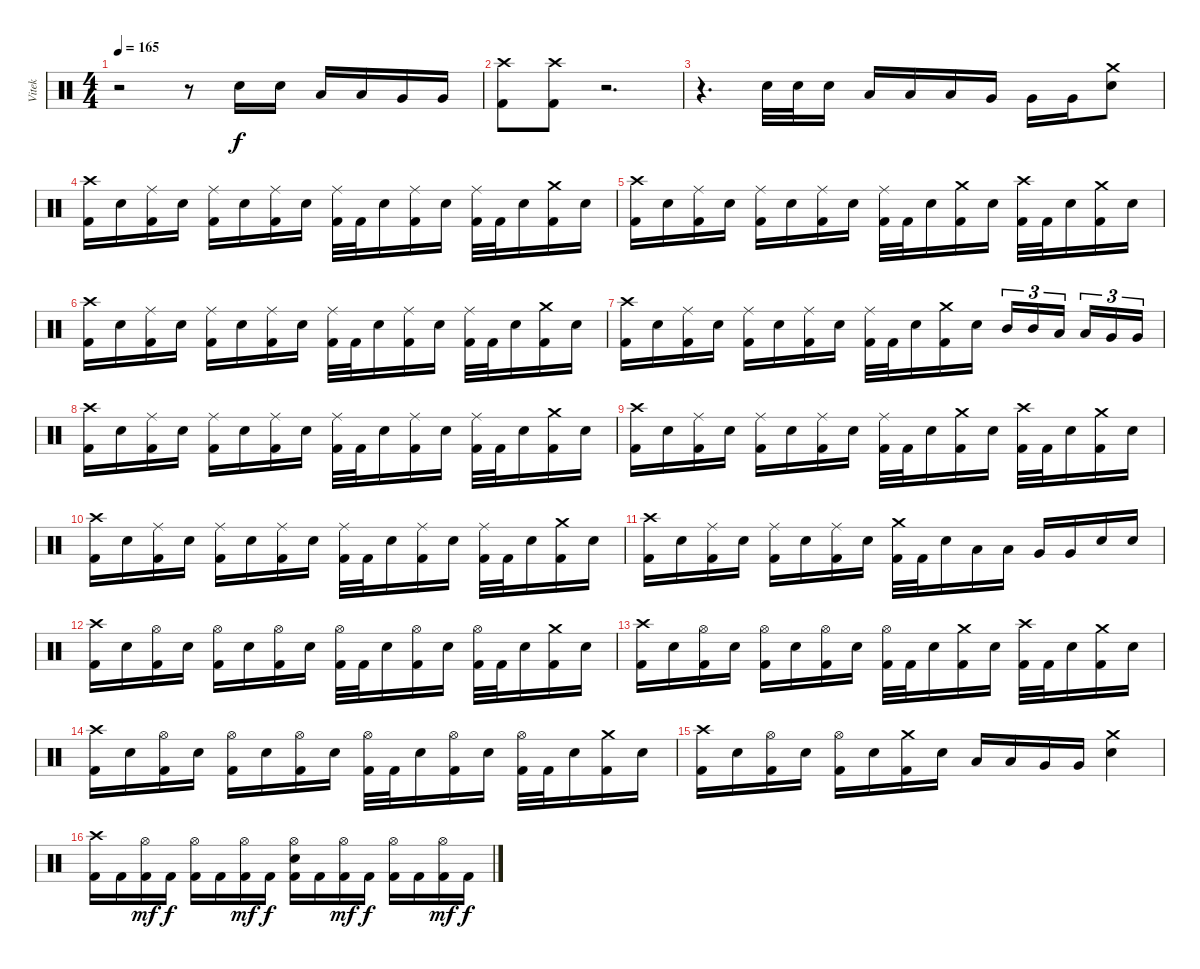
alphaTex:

\track ("Vitek" "Vitek") {instrument percussion}
\staff {score}
\articulation defaults
\ts (4 4)
\tempo 165
\clef neutral
\ks c
r.2{dy f} r.8 "Electric Snare (hit)".16 "Electric Snare (hit)".16 "Low Tom (hit)".16 "Low Tom (hit)".16 "Very Low Tom (hit)".16 "Very Low Tom (hit)".16 |
("Crash high (hit)" "Kick (hit) 2").8 ("Crash high (hit)" "Kick (hit) 2").8 r.2{d} |
r.4{d} "Electric Snare (hit)".32 "Electric Snare (hit)".32 "Electric Snare (hit)".16 "Low Tom (hit)".16 "Low Tom (hit)".16 "Low Tom (hit)".16 "Very Low Tom (hit)".16 "Very Low Tom (hit)".16 "Very Low Tom (hit)".16 ("Crash medium (hit)" "Electric Snare (hit)").8 |
("Crash high (hit)" "Kick (hit) 2").16 "Electric Snare (hit)".16 ("Ride (middle)" "Kick (hit) 2").16 "Electric Snare (hit)".16 ("Ride (middle)" "Kick (hit) 2").16 "Electric Snare (hit)".16 ("Ride (middle)" "Kick (hit) 2").16 "Electric Snare (hit)".16 ("Ride (middle)" "Kick (hit) 2").32 "Kick (hit) 2".32 "Electric Snare (hit)".16 ("Ride (middle)" "Kick (hit) 2").16 "Electric Snare (hit)".16 ("Ride (middle)" "Kick (hit) 2").32 "Kick (hit) 2".32 "Electric Snare (hit)".16 ("Crash medium (hit)" "Kick (hit) 2").16 "Electric Snare (hit)".16 |
("Crash high (hit)" "Kick (hit) 2").16 "Electric Snare (hit)".16 ("Ride (middle)" "Kick (hit) 2").16 "Electric Snare (hit)".16 ("Ride (middle)" "Kick (hit) 2").16 "Electric Snare (hit)".16 ("Ride (middle)" "Kick (hit) 2").16 "Electric Snare (hit)".16 ("Ride (middle)" "Kick (hit) 2").32 "Kick (hit) 2".32 "Electric Snare (hit)".16 ("Crash medium (hit)" "Kick (hit) 2").16 "Electric Snare (hit)".16 ("Crash high (hit)" "Kick (hit) 2").32 "Kick (hit) 2".32 "Electric Snare (hit)".16 ("Crash medium (hit)" "Kick (hit) 2").16 "Electric Snare (hit)".16 |
("Crash high (hit)" "Kick (hit) 2").16 "Electric Snare (hit)".16 ("Ride (middle)" "Kick (hit) 2").16 "Electric Snare (hit)".16 ("Ride (middle)" "Kick (hit) 2").16 "Electric Snare (hit)".16 ("Ride (middle)" "Kick (hit) 2").16 "Electric Snare (hit)".16 ("Ride (middle)" "Kick (hit) 2").32 "Kick (hit) 2".32 "Electric Snare (hit)".16 ("Ride (middle)" "Kick (hit) 2").16 "Electric Snare (hit)".16 ("Ride (middle)" "Kick (hit) 2").32 "Kick (hit) 2".32 "Electric Snare (hit)".16 ("Crash medium (hit)" "Kick (hit) 2").16 "Electric Snare (hit)".16 |
("Crash high (hit)" "Kick (hit) 2").16 "Electric Snare (hit)".16 ("Ride (middle)" "Kick (hit) 2").16 "Electric Snare (hit)".16 ("Ride (middle)" "Kick (hit) 2").16 "Electric Snare (hit)".16 ("Ride (middle)" "Kick (hit) 2").16 "Electric Snare (hit)".16 ("Ride (middle)" "Kick (hit) 2").32 "Kick (hit) 2".32 "Electric Snare (hit)".16 ("Crash medium (hit)" "Kick (hit) 2").16 "Electric Snare (hit)".16 "Mid Tom (hit)".16{tu (3 2)} "Mid Tom (hit)".16{tu (3 2)} "Low Tom (hit)".16{tu (3 2) beam splitsecondary} "Low Tom (hit)".16{tu (3 2)} "Very Low Tom (hit)".16{tu (3 2)} "Very Low Tom (hit)".16{tu (3 2)} |
("Crash high (hit)" "Kick (hit) 2").16 "Electric Snare (hit)".16 ("Ride (middle)" "Kick (hit) 2").16 "Electric Snare (hit)".16 ("Ride (middle)" "Kick (hit) 2").16 "Electric Snare (hit)".16 ("Ride (middle)" "Kick (hit) 2").16 "Electric Snare (hit)".16 ("Ride (middle)" "Kick (hit) 2").32 "Kick (hit) 2".32 "Electric Snare (hit)".16 ("Ride (middle)" "Kick (hit) 2").16 "Electric Snare (hit)".16 ("Ride (middle)" "Kick (hit) 2").32 "Kick (hit) 2".32 "Electric Snare (hit)".16 ("Crash medium (hit)" "Kick (hit) 2").16 "Electric Snare (hit)".16 |
("Crash high (hit)" "Kick (hit) 2").16 "Electric Snare (hit)".16 ("Ride (middle)" "Kick (hit) 2").16 "Electric Snare (hit)".16 ("Ride (middle)" "Kick (hit) 2").16 "Electric Snare (hit)".16 ("Ride (middle)" "Kick (hit) 2").16 "Electric Snare (hit)".16 ("Ride (middle)" "Kick (hit) 2").32 "Kick (hit) 2".32 "Electric Snare (hit)".16 ("Crash medium (hit)" "Kick (hit) 2").16 "Electric Snare (hit)".16 ("Crash high (hit)" "Kick (hit) 2").32 "Kick (hit) 2".32 "Electric Snare (hit)".16 ("Crash medium (hit)" "Kick (hit) 2").16 "Electric Snare (hit)".16 |
("Crash high (hit)" "Kick (hit) 2").16 "Electric Snare (hit)".16 ("Ride (middle)" "Kick (hit) 2").16 "Electric Snare (hit)".16 ("Ride (middle)" "Kick (hit) 2").16 "Electric Snare (hit)".16 ("Ride (middle)" "Kick (hit) 2").16 "Electric Snare (hit)".16 ("Ride (middle)" "Kick (hit) 2").32 "Kick (hit) 2".32 "Electric Snare (hit)".16 ("Ride (middle)" "Kick (hit) 2").16 "Electric Snare (hit)".16 ("Ride (middle)" "Kick (hit) 2").32 "Kick (hit) 2".32 "Electric Snare (hit)".16 ("Crash medium (hit)" "Kick (hit) 2").16 "Electric Snare (hit)".16 |
("Crash high (hit)" "Kick (hit) 2").16 "Electric Snare (hit)".16 ("Ride (middle)" "Kick (hit) 2").16 "Electric Snare (hit)".16 ("Ride (middle)" "Kick (hit) 2").16 "Electric Snare (hit)".16 ("Ride (middle)" "Kick (hit) 2").16 "Electric Snare (hit)".16 ("Crash medium (hit)" "Kick (hit) 2").32 "Kick (hit) 2".32 "Electric Snare (hit)".16 "Low Tom (hit)".16 "Low Tom (hit)".16 "Very Low Tom (hit)".16 "Very Low Tom (hit)".16 "Electric Snare (hit)".16 "Electric Snare (hit)".16 |
("Crash high (hit)" "Kick (hit) 2").16 "Electric Snare (hit)".16 ("Hi-Hat (open)" "Kick (hit) 2").16 "Electric Snare (hit)".16 ("Hi-Hat (open)" "Kick (hit) 2").16 "Electric Snare (hit)".16 ("Hi-Hat (open)" "Kick (hit) 2").16 "Electric Snare (hit)".16 ("Hi-Hat (open)" "Kick (hit) 2").32 "Kick (hit) 2".32 "Electric Snare (hit)".16 ("Hi-Hat (open)" "Kick (hit) 2").16 "Electric Snare (hit)".16 ("Hi-Hat (open)" "Kick (hit) 2").32 "Kick (hit) 2".32 "Electric Snare (hit)".16 ("Crash medium (hit)" "Kick (hit) 2").16 "Electric Snare (hit)".16 |
("Crash high (hit)" "Kick (hit) 2").16 "Electric Snare (hit)".16 ("Hi-Hat (open)" "Kick (hit) 2").16 "Electric Snare (hit)".16 ("Hi-Hat (open)" "Kick (hit) 2").16 "Electric Snare (hit)".16 ("Hi-Hat (open)" "Kick (hit) 2").16 "Electric Snare (hit)".16 ("Hi-Hat (open)" "Kick (hit) 2").32 "Kick (hit) 2".32 "Electric Snare (hit)".16 ("Crash medium (hit)" "Kick (hit) 2").16 "Electric Snare (hit)".16 ("Crash high (hit)" "Kick (hit) 2").32 "Kick (hit) 2".32 "Electric Snare (hit)".16 ("Crash medium (hit)" "Kick (hit) 2").16 "Electric Snare (hit)".16 |
("Crash high (hit)" "Kick (hit) 2").16 "Electric Snare (hit)".16 ("Hi-Hat (open)" "Kick (hit) 2").16 "Electric Snare (hit)".16 ("Hi-Hat (open)" "Kick (hit) 2").16 "Electric Snare (hit)".16 ("Hi-Hat (open)" "Kick (hit) 2").16 "Electric Snare (hit)".16 ("Hi-Hat (open)" "Kick (hit) 2").32 "Kick (hit) 2".32 "Electric Snare (hit)".16 ("Hi-Hat (open)" "Kick (hit) 2").16 "Electric Snare (hit)".16 ("Hi-Hat (open)" "Kick (hit) 2").32 "Kick (hit) 2".32 "Electric Snare (hit)".16 ("Crash medium (hit)" "Kick (hit) 2").16 "Electric Snare (hit)".16 |
("Crash high (hit)" "Kick (hit) 2").16 "Electric Snare (hit)".16 ("Hi-Hat (open)" "Kick (hit) 2").16 "Electric Snare (hit)".16 ("Hi-Hat (open)" "Kick (hit) 2").16 "Electric Snare (hit)".16 ("Crash medium (hit)" "Kick (hit) 2").16 "Electric Snare (hit)".16 "Low Tom (hit)".16 "Low Tom (hit)".16 "Very Low Tom (hit)".16 "Very Low Tom (hit)".16 ("Crash medium (hit)" "Electric Snare (hit)").4 |
("Crash high (hit)" "Kick (hit) 2").16 "Kick (hit) 2".16 ("Hi-Hat (open)" "Kick (hit) 2").16{dy mf} "Kick (hit) 2".16{dy f} ("Hi-Hat (open)" "Kick (hit) 2").16 "Kick (hit) 2".16 ("Hi-Hat (open)" "Kick (hit) 2").16{dy mf} "Kick (hit) 2".16{dy f} ("Hi-Hat (open)" "Electric Snare (hit)" "Kick (hit) 2").16 "Kick (hit) 2".16 ("Hi-Hat (open)" "Kick (hit) 2").16{dy mf} "Kick (hit) 2".16{dy f} ("Hi-Hat (open)" "Kick (hit) 2").16 "Kick (hit) 2".16 ("Hi-Hat (open)" "Kick (hit) 2").16{dy mf} "Kick (hit) 2".16{dy f}
